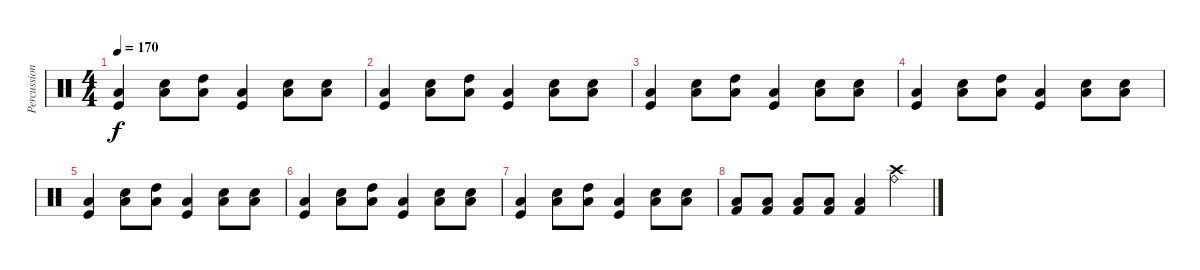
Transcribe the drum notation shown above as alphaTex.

\track ("Percussion" "Percussion") {instrument percussion}
\staff {score}
\articulation defaults
\ts (4 4)
\tempo 170
\clef neutral
\ks c
("Kick (hit)" "Low Tom (hit)").4{dy f} ("Low Tom (hit)" "Snare (hit) 2").8 ("Low Tom (hit)" "High Tom (hit)").8 ("Kick (hit)" "Low Tom (hit)").4 ("Low Tom (hit)" "Snare (hit) 2").8 ("Low Tom (hit)" "Snare (hit) 2").8 |
("Kick (hit)" "Low Tom (hit)").4 ("Low Tom (hit)" "Snare (hit) 2").8 ("Low Tom (hit)" "High Tom (hit)").8 ("Kick (hit)" "Low Tom (hit)").4 ("Low Tom (hit)" "Snare (hit) 2").8 ("Low Tom (hit)" "Snare (hit) 2").8 |
("Kick (hit)" "Low Tom (hit)").4 ("Low Tom (hit)" "Snare (hit) 2").8 ("Low Tom (hit)" "High Tom (hit)").8 ("Kick (hit)" "Low Tom (hit)").4 ("Low Tom (hit)" "Snare (hit) 2").8 ("Low Tom (hit)" "Snare (hit) 2").8 |
("Kick (hit)" "Low Tom (hit)").4 ("Low Tom (hit)" "Snare (hit) 2").8 ("Low Tom (hit)" "High Tom (hit)").8 ("Kick (hit)" "Low Tom (hit)").4 ("Low Tom (hit)" "Snare (hit) 2").8 ("Low Tom (hit)" "Snare (hit) 2").8 |
("Kick (hit)" "Low Tom (hit)").4 ("Low Tom (hit)" "Snare (hit) 2").8 ("Low Tom (hit)" "High Tom (hit)").8 ("Kick (hit)" "Low Tom (hit)").4 ("Low Tom (hit)" "Snare (hit) 2").8 ("Low Tom (hit)" "Snare (hit) 2").8 |
("Kick (hit)" "Low Tom (hit)").4 ("Low Tom (hit)" "Snare (hit) 2").8 ("Low Tom (hit)" "High Tom (hit)").8 ("Kick (hit)" "Low Tom (hit)").4 ("Low Tom (hit)" "Snare (hit) 2").8 ("Low Tom (hit)" "Snare (hit) 2").8 |
("Kick (hit)" "Low Tom (hit)").4 ("Low Tom (hit)" "Snare (hit) 2").8 ("Low Tom (hit)" "High Tom (hit)").8 ("Kick (hit)" "Low Tom (hit)").4 ("Low Tom (hit)" "Snare (hit) 2").8 ("Low Tom (hit)" "Snare (hit) 2").8 |
("Kick (hit) 2" "Low Tom (hit)").8 ("Kick (hit) 2" "Low Tom (hit)").8 ("Kick (hit) 2" "Low Tom (hit)").8 ("Kick (hit) 2" "Low Tom (hit)").8 ("Kick (hit) 2" "Low Tom (hit)").4 ("Crash high (hit)" "Ride (bell)").4
